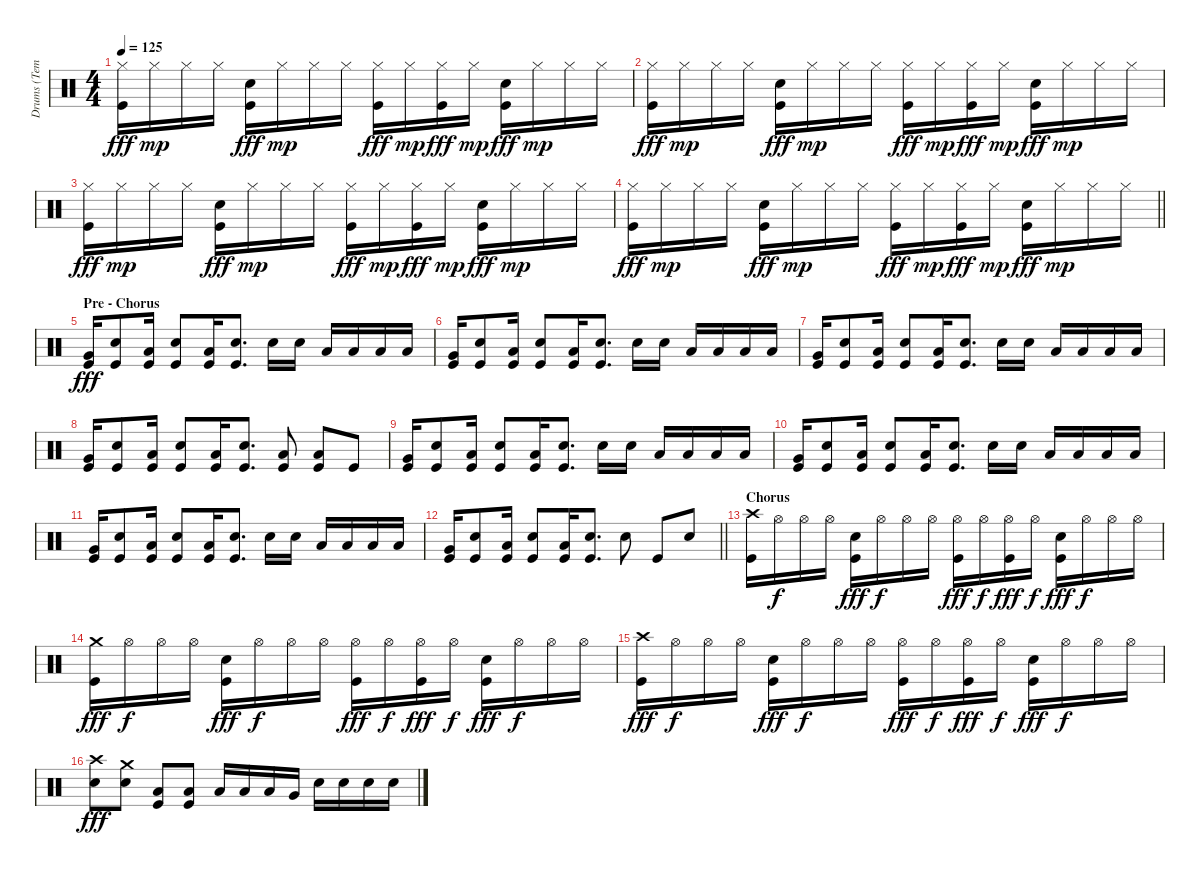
\track ("Drums (Tempesta)" "Drums (Tem") {instrument percussion}
\staff {score}
\articulation defaults
\ts (4 4)
\tempo 125
\clef neutral
\ks c
("Hi-Hat (closed)" "Kick (hit)").16{dy fff} "Hi-Hat (closed)".16{dy mp} "Hi-Hat (closed)".16 "Hi-Hat (closed)".16 ("Electric Snare (hit)" "Kick (hit)").16{dy fff} "Hi-Hat (closed)".16{dy mp} "Hi-Hat (closed)".16 "Hi-Hat (closed)".16 ("Hi-Hat (closed)" "Kick (hit)").16{dy fff} "Hi-Hat (closed)".16{dy mp} ("Hi-Hat (closed)" "Kick (hit)").16{dy fff} "Hi-Hat (closed)".16{dy mp} ("Electric Snare (hit)" "Kick (hit)").16{dy fff} "Hi-Hat (closed)".16{dy mp} "Hi-Hat (closed)".16 "Hi-Hat (closed)".16 |
("Hi-Hat (closed)" "Kick (hit)").16{dy fff} "Hi-Hat (closed)".16{dy mp} "Hi-Hat (closed)".16 "Hi-Hat (closed)".16 ("Electric Snare (hit)" "Kick (hit)").16{dy fff} "Hi-Hat (closed)".16{dy mp} "Hi-Hat (closed)".16 "Hi-Hat (closed)".16 ("Hi-Hat (closed)" "Kick (hit)").16{dy fff} "Hi-Hat (closed)".16{dy mp} ("Hi-Hat (closed)" "Kick (hit)").16{dy fff} "Hi-Hat (closed)".16{dy mp} ("Electric Snare (hit)" "Kick (hit)").16{dy fff} "Hi-Hat (closed)".16{dy mp} "Hi-Hat (closed)".16 "Hi-Hat (closed)".16 |
("Hi-Hat (closed)" "Kick (hit)").16{dy fff} "Hi-Hat (closed)".16{dy mp} "Hi-Hat (closed)".16 "Hi-Hat (closed)".16 ("Electric Snare (hit)" "Kick (hit)").16{dy fff} "Hi-Hat (closed)".16{dy mp} "Hi-Hat (closed)".16 "Hi-Hat (closed)".16 ("Hi-Hat (closed)" "Kick (hit)").16{dy fff} "Hi-Hat (closed)".16{dy mp} ("Hi-Hat (closed)" "Kick (hit)").16{dy fff} "Hi-Hat (closed)".16{dy mp} ("Electric Snare (hit)" "Kick (hit)").16{dy fff} "Hi-Hat (closed)".16{dy mp} "Hi-Hat (closed)".16 "Hi-Hat (closed)".16 |
\barLineRight lightlight
("Hi-Hat (closed)" "Kick (hit)").16{dy fff} "Hi-Hat (closed)".16{dy mp} "Hi-Hat (closed)".16 "Hi-Hat (closed)".16 ("Electric Snare (hit)" "Kick (hit)").16{dy fff} "Hi-Hat (closed)".16{dy mp} "Hi-Hat (closed)".16 "Hi-Hat (closed)".16 ("Hi-Hat (closed)" "Kick (hit)").16{dy fff} "Hi-Hat (closed)".16{dy mp} ("Hi-Hat (closed)" "Kick (hit)").16{dy fff} "Hi-Hat (closed)".16{dy mp} ("Electric Snare (hit)" "Kick (hit)").16{dy fff} "Hi-Hat (closed)".16{dy mp} "Hi-Hat (closed)".16 "Hi-Hat (closed)".16 |
\section ("" "Pre - Chorus")
("Very Low Tom (hit)" "Kick (hit)").16{dy fff} ("Electric Snare (hit)" "Kick (hit)").8 ("Low Floor Tom (hit)" "Kick (hit)").16 ("Electric Snare (hit)" "Kick (hit)").8 ("Low Floor Tom (hit)" "Kick (hit)").16 ("Electric Snare (hit)" "Kick (hit)").8{d} "Electric Snare (hit)".16 "Electric Snare (hit)".16 "Low Tom (hit)".16 "Low Tom (hit)".16 "Low Floor Tom (hit)".16 "Low Floor Tom (hit)".16 |
("Very Low Tom (hit)" "Kick (hit)").16 ("Electric Snare (hit)" "Kick (hit)").8 ("Low Floor Tom (hit)" "Kick (hit)").16 ("Electric Snare (hit)" "Kick (hit)").8 ("Low Floor Tom (hit)" "Kick (hit)").16 ("Electric Snare (hit)" "Kick (hit)").8{d} "Electric Snare (hit)".16 "Electric Snare (hit)".16 "Low Tom (hit)".16 "Low Tom (hit)".16 "Low Floor Tom (hit)".16 "Low Floor Tom (hit)".16 |
("Very Low Tom (hit)" "Kick (hit)").16 ("Electric Snare (hit)" "Kick (hit)").8 ("Low Floor Tom (hit)" "Kick (hit)").16 ("Electric Snare (hit)" "Kick (hit)").8 ("Low Floor Tom (hit)" "Kick (hit)").16 ("Electric Snare (hit)" "Kick (hit)").8{d} "Electric Snare (hit)".16 "Electric Snare (hit)".16 "Low Tom (hit)".16 "Low Tom (hit)".16 "Low Floor Tom (hit)".16 "Low Floor Tom (hit)".16 |
("Very Low Tom (hit)" "Kick (hit)").16 ("Electric Snare (hit)" "Kick (hit)").8 ("Low Floor Tom (hit)" "Kick (hit)").16 ("Electric Snare (hit)" "Kick (hit)").8 ("Low Floor Tom (hit)" "Kick (hit)").16 ("Electric Snare (hit)" "Kick (hit)").8{d} ("Low Floor Tom (hit)" "Kick (hit)").8 ("Low Floor Tom (hit)" "Kick (hit)").8 "Kick (hit)".8 |
("Very Low Tom (hit)" "Kick (hit)").16 ("Electric Snare (hit)" "Kick (hit)").8 ("Low Floor Tom (hit)" "Kick (hit)").16 ("Electric Snare (hit)" "Kick (hit)").8 ("Low Floor Tom (hit)" "Kick (hit)").16 ("Electric Snare (hit)" "Kick (hit)").8{d} "Electric Snare (hit)".16 "Electric Snare (hit)".16 "Low Tom (hit)".16 "Low Tom (hit)".16 "Low Floor Tom (hit)".16 "Low Floor Tom (hit)".16 |
("Very Low Tom (hit)" "Kick (hit)").16 ("Electric Snare (hit)" "Kick (hit)").8 ("Low Floor Tom (hit)" "Kick (hit)").16 ("Electric Snare (hit)" "Kick (hit)").8 ("Low Floor Tom (hit)" "Kick (hit)").16 ("Electric Snare (hit)" "Kick (hit)").8{d} "Electric Snare (hit)".16 "Electric Snare (hit)".16 "Low Tom (hit)".16 "Low Tom (hit)".16 "Low Floor Tom (hit)".16 "Low Floor Tom (hit)".16 |
("Very Low Tom (hit)" "Kick (hit)").16 ("Electric Snare (hit)" "Kick (hit)").8 ("Low Floor Tom (hit)" "Kick (hit)").16 ("Electric Snare (hit)" "Kick (hit)").8 ("Low Floor Tom (hit)" "Kick (hit)").16 ("Electric Snare (hit)" "Kick (hit)").8{d} "Electric Snare (hit)".16 "Electric Snare (hit)".16 "Low Tom (hit)".16 "Low Tom (hit)".16 "Low Floor Tom (hit)".16 "Low Floor Tom (hit)".16 |
\barLineRight lightlight
("Very Low Tom (hit)" "Kick (hit)").16 ("Electric Snare (hit)" "Kick (hit)").8 ("Low Floor Tom (hit)" "Kick (hit)").16 ("Electric Snare (hit)" "Kick (hit)").8 ("Low Floor Tom (hit)" "Kick (hit)").16 ("Electric Snare (hit)" "Kick (hit)").8{d} "Electric Snare (hit)".8 "Kick (hit)".8 "Electric Snare (hit)".8 |
\section ("" "Chorus")
("Crash high (hit)" "Kick (hit)").16 "Hi-Hat (open)".16{dy f} "Hi-Hat (open)".16 "Hi-Hat (open)".16 ("Electric Snare (hit)" "Kick (hit)").16{dy fff} "Hi-Hat (open)".16{dy f} "Hi-Hat (open)".16 "Hi-Hat (open)".16 ("Hi-Hat (open)" "Kick (hit)").16{dy fff} "Hi-Hat (open)".16{dy f} ("Hi-Hat (open)" "Kick (hit)").16{dy fff} "Hi-Hat (open)".16{dy f} ("Electric Snare (hit)" "Kick (hit)").16{dy fff} "Hi-Hat (open)".16{dy f} "Hi-Hat (open)".16 "Hi-Hat (open)".16 |
("Crash medium (hit)" "Kick (hit)").16{dy fff} "Hi-Hat (open)".16{dy f} "Hi-Hat (open)".16 "Hi-Hat (open)".16 ("Electric Snare (hit)" "Kick (hit)").16{dy fff} "Hi-Hat (open)".16{dy f} "Hi-Hat (open)".16 "Hi-Hat (open)".16 ("Hi-Hat (open)" "Kick (hit)").16{dy fff} "Hi-Hat (open)".16{dy f} ("Hi-Hat (open)" "Kick (hit)").16{dy fff} "Hi-Hat (open)".16{dy f} ("Electric Snare (hit)" "Kick (hit)").16{dy fff} "Hi-Hat (open)".16{dy f} "Hi-Hat (open)".16 "Hi-Hat (open)".16 |
("Crash high (hit)" "Kick (hit)").16{dy fff} "Hi-Hat (open)".16{dy f} "Hi-Hat (open)".16 "Hi-Hat (open)".16 ("Electric Snare (hit)" "Kick (hit)").16{dy fff} "Hi-Hat (open)".16{dy f} "Hi-Hat (open)".16 "Hi-Hat (open)".16 ("Hi-Hat (open)" "Kick (hit)").16{dy fff} "Hi-Hat (open)".16{dy f} ("Hi-Hat (open)" "Kick (hit)").16{dy fff} "Hi-Hat (open)".16{dy f} ("Electric Snare (hit)" "Kick (hit)").16{dy fff} "Hi-Hat (open)".16{dy f} "Hi-Hat (open)".16 "Hi-Hat (open)".16 |
("Crash high (hit)" "Electric Snare (hit)").8{dy fff} ("Crash medium (hit)" "Electric Snare (hit)").8 ("Low Floor Tom (hit)" "Kick (hit)").8 ("Low Floor Tom (hit)" "Kick (hit)").8 "Low Tom (hit)".16 "Low Tom (hit)".16 "Low Tom (hit)".16 "Very Low Tom (hit)".16 "Electric Snare (hit)".16 "Electric Snare (hit)".16 "Electric Snare (hit)".16 "Electric Snare (hit)".16
